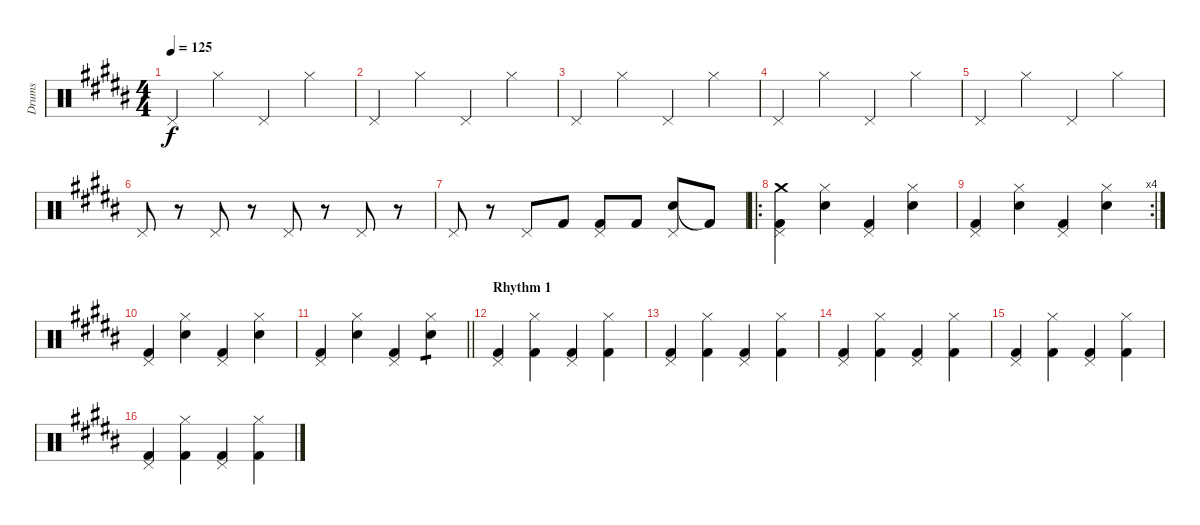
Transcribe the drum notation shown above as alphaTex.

\track ("Drums" "Drums") {instrument percussion}
\staff {score}
\articulation defaults
\ts (4 4)
\tempo 125
\clef neutral
\ks b "Pedal Hi-Hat (hit)".4{dy f} "Hi-Hat (closed)".4 "Pedal Hi-Hat (hit)".4 "Hi-Hat (closed)".4
|
"Pedal Hi-Hat (hit)".4 "Hi-Hat (closed)".4 "Pedal Hi-Hat (hit)".4 "Hi-Hat (closed)".4 |
"Pedal Hi-Hat (hit)".4 "Hi-Hat (closed)".4 "Pedal Hi-Hat (hit)".4 "Hi-Hat (closed)".4 |
"Pedal Hi-Hat (hit)".4 "Hi-Hat (closed)".4 "Pedal Hi-Hat (hit)".4 "Hi-Hat (closed)".4 |
"Pedal Hi-Hat (hit)".4 "Hi-Hat (closed)".4 "Pedal Hi-Hat (hit)".4 "Hi-Hat (closed)".4 |
"Pedal Hi-Hat (hit)".8 r.8 "Pedal Hi-Hat (hit)".8 r.8 "Pedal Hi-Hat (hit)".8 r.8 "Pedal Hi-Hat (hit)".8 r.8 |
"Pedal Hi-Hat (hit)".8 r.8 "Pedal Hi-Hat (hit)".8 "Kick (hit) 2".8 ("Kick (hit) 2" "Pedal Hi-Hat (hit)").8 "Kick (hit) 2".8 ("Snare (hit) 2" "Pedal Hi-Hat (hit)").8 "Kick (hit) 2"{t}.8 |
\ro
("Kick (hit) 2" "Pedal Hi-Hat (hit)" "Crash medium (hit)").4 ("Snare (hit) 2" "Hi-Hat (closed)").4 ("Kick (hit) 2" "Pedal Hi-Hat (hit)").4 ("Snare (hit) 2" "Hi-Hat (closed)").4 |
\rc 4
("Kick (hit) 2" "Pedal Hi-Hat (hit)").4 ("Snare (hit) 2" "Hi-Hat (closed)").4 ("Kick (hit) 2" "Pedal Hi-Hat (hit)").4 ("Snare (hit) 2" "Hi-Hat (closed)").4 |
("Kick (hit) 2" "Pedal Hi-Hat (hit)").4 ("Snare (hit) 2" "Hi-Hat (closed)").4 ("Kick (hit) 2" "Pedal Hi-Hat (hit)").4 ("Snare (hit) 2" "Hi-Hat (closed)").4 |
\barLineRight lightlight
("Kick (hit) 2" "Pedal Hi-Hat (hit)").4 ("Snare (hit) 2" "Hi-Hat (closed)").4 ("Kick (hit) 2" "Pedal Hi-Hat (hit)").4 ("Snare (hit) 2" "Hi-Hat (closed)").4{tp 1} |
\section ("" "Rhythm 1")
("Kick (hit) 2" "Pedal Hi-Hat (hit)").4 ("Kick (hit) 2" "Hi-Hat (closed)").4 ("Kick (hit) 2" "Pedal Hi-Hat (hit)").4 ("Kick (hit) 2" "Hi-Hat (closed)").4 |
("Kick (hit) 2" "Pedal Hi-Hat (hit)").4 ("Kick (hit) 2" "Hi-Hat (closed)").4 ("Kick (hit) 2" "Pedal Hi-Hat (hit)").4 ("Kick (hit) 2" "Hi-Hat (closed)").4 |
("Kick (hit) 2" "Pedal Hi-Hat (hit)").4 ("Kick (hit) 2" "Hi-Hat (closed)").4 ("Kick (hit) 2" "Pedal Hi-Hat (hit)").4 ("Kick (hit) 2" "Hi-Hat (closed)").4 |
("Kick (hit) 2" "Pedal Hi-Hat (hit)").4 ("Kick (hit) 2" "Hi-Hat (closed)").4 ("Kick (hit) 2" "Pedal Hi-Hat (hit)").4 ("Kick (hit) 2" "Hi-Hat (closed)").4 |
("Kick (hit) 2" "Pedal Hi-Hat (hit)").4 ("Kick (hit) 2" "Hi-Hat (closed)").4 ("Kick (hit) 2" "Pedal Hi-Hat (hit)").4 ("Kick (hit) 2" "Hi-Hat (closed)").4
